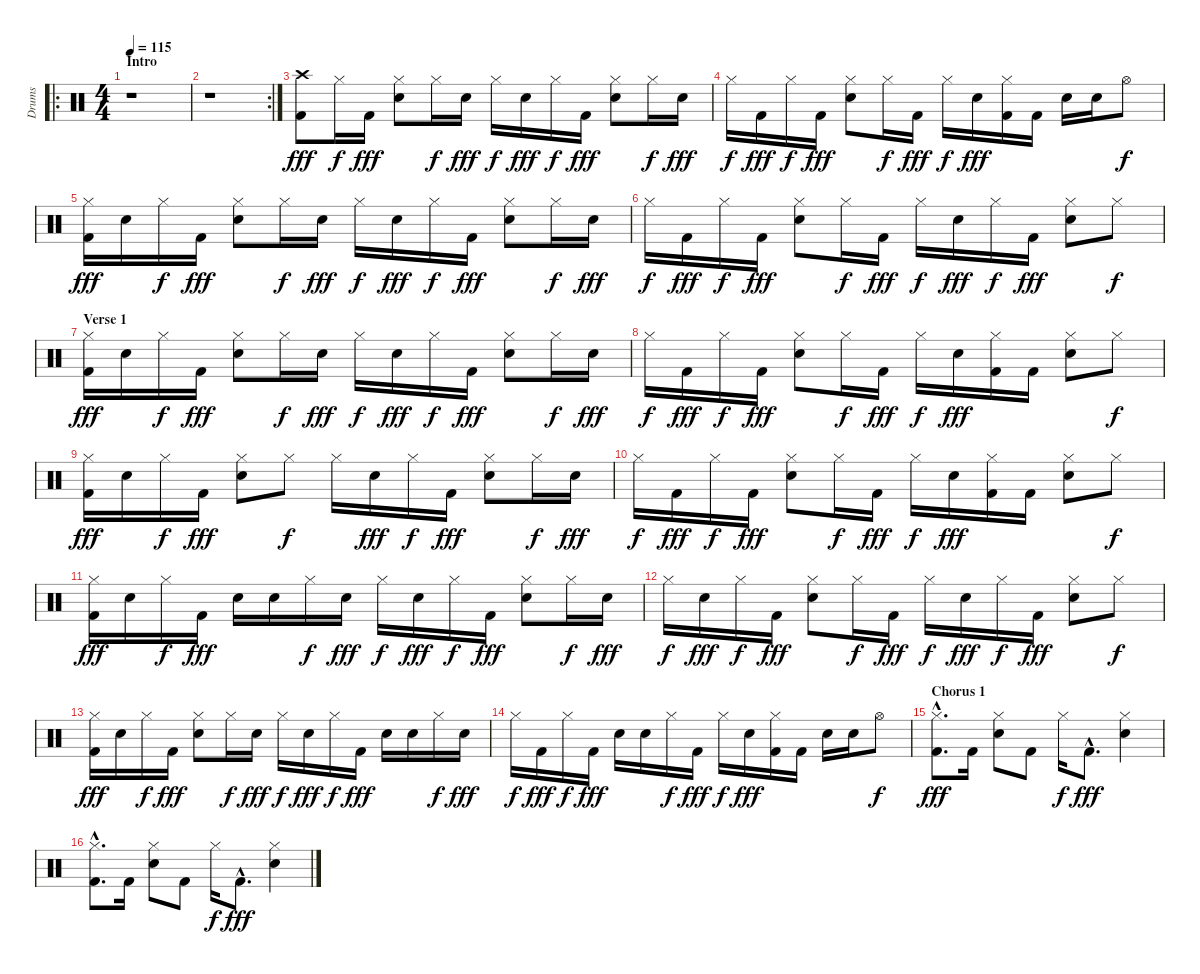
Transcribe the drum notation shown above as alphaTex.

\track ("Drums" "Drums") {instrument percussion}
\staff {score}
\articulation defaults
\ro
\ts (4 4)
\section ("" "Intro")
\tempo 115
\clef neutral
\ks c
r.1{dy fff} |
\rc 2
r.1 |
("Crash high (hit)" "Kick (hit) 2").8 "Hi-Hat (closed)".16{dy f} "Kick (hit) 2".16{dy fff} ("Hi-Hat (closed)" "Electric Snare (hit)").8 "Hi-Hat (closed)".16{dy f} "Electric Snare (hit)".16{dy fff} "Hi-Hat (closed)".16{dy f} "Electric Snare (hit)".16{dy fff} "Hi-Hat (closed)".16{dy f} "Kick (hit) 2".16{dy fff} ("Hi-Hat (closed)" "Electric Snare (hit)").8 "Hi-Hat (closed)".16{dy f} "Electric Snare (hit)".16{dy fff} |
"Hi-Hat (closed)".16{dy f} "Kick (hit) 2".16{dy fff} "Hi-Hat (closed)".16{dy f} "Kick (hit) 2".16{dy fff} ("Hi-Hat (closed)" "Electric Snare (hit)").8 "Hi-Hat (closed)".16{dy f} "Kick (hit) 2".16{dy fff} "Hi-Hat (closed)".16{dy f} "Electric Snare (hit)".16{dy fff} ("Hi-Hat (closed)" "Kick (hit) 2").16 "Kick (hit) 2".16 "Electric Snare (hit)".16 "Electric Snare (hit)".16 "Hi-Hat (open)".8{dy f} |
("Hi-Hat (closed)" "Kick (hit) 2").16{dy fff} "Electric Snare (hit)".16 "Hi-Hat (closed)".16{dy f} "Kick (hit) 2".16{dy fff} ("Hi-Hat (closed)" "Electric Snare (hit)").8 "Hi-Hat (closed)".16{dy f} "Electric Snare (hit)".16{dy fff} "Hi-Hat (closed)".16{dy f} "Electric Snare (hit)".16{dy fff} "Hi-Hat (closed)".16{dy f} "Kick (hit) 2".16{dy fff} ("Hi-Hat (closed)" "Electric Snare (hit)").8 "Hi-Hat (closed)".16{dy f} "Electric Snare (hit)".16{dy fff} |
"Hi-Hat (closed)".16{dy f} "Kick (hit) 2".16{dy fff} "Hi-Hat (closed)".16{dy f} "Kick (hit) 2".16{dy fff} ("Hi-Hat (closed)" "Electric Snare (hit)").8 "Hi-Hat (closed)".16{dy f} "Kick (hit) 2".16{dy fff} "Hi-Hat (closed)".16{dy f} "Electric Snare (hit)".16{dy fff} "Hi-Hat (closed)".16{dy f} "Kick (hit) 2".16{dy fff} ("Hi-Hat (closed)" "Electric Snare (hit)").8 "Hi-Hat (closed)".8{dy f} |
\section ("" "Verse 1")
("Hi-Hat (closed)" "Kick (hit) 2").16{dy fff} "Electric Snare (hit)".16 "Hi-Hat (closed)".16{dy f} "Kick (hit) 2".16{dy fff} ("Hi-Hat (closed)" "Electric Snare (hit)").8 "Hi-Hat (closed)".16{dy f} "Electric Snare (hit)".16{dy fff} "Hi-Hat (closed)".16{dy f} "Electric Snare (hit)".16{dy fff} "Hi-Hat (closed)".16{dy f} "Kick (hit) 2".16{dy fff} ("Hi-Hat (closed)" "Electric Snare (hit)").8 "Hi-Hat (closed)".16{dy f} "Electric Snare (hit)".16{dy fff} |
"Hi-Hat (closed)".16{dy f} "Kick (hit) 2".16{dy fff} "Hi-Hat (closed)".16{dy f} "Kick (hit) 2".16{dy fff} ("Hi-Hat (closed)" "Electric Snare (hit)").8 "Hi-Hat (closed)".16{dy f} "Kick (hit) 2".16{dy fff} "Hi-Hat (closed)".16{dy f} "Electric Snare (hit)".16{dy fff} ("Hi-Hat (closed)" "Kick (hit) 2").16 "Kick (hit) 2".16 ("Hi-Hat (closed)" "Electric Snare (hit)").8 "Hi-Hat (closed)".8{dy f} |
("Hi-Hat (closed)" "Kick (hit) 2").16{dy fff} "Electric Snare (hit)".16 "Hi-Hat (closed)".16{dy f} "Kick (hit) 2".16{dy fff} ("Hi-Hat (closed)" "Electric Snare (hit)").8 "Hi-Hat (closed)".8{dy f} "Hi-Hat (closed)".16 "Electric Snare (hit)".16{dy fff} "Hi-Hat (closed)".16{dy f} "Kick (hit) 2".16{dy fff} ("Hi-Hat (closed)" "Electric Snare (hit)").8 "Hi-Hat (closed)".16{dy f} "Electric Snare (hit)".16{dy fff} |
"Hi-Hat (closed)".16{dy f} "Kick (hit) 2".16{dy fff} "Hi-Hat (closed)".16{dy f} "Kick (hit) 2".16{dy fff} ("Hi-Hat (closed)" "Electric Snare (hit)").8 "Hi-Hat (closed)".16{dy f} "Kick (hit) 2".16{dy fff} "Hi-Hat (closed)".16{dy f} "Electric Snare (hit)".16{dy fff} ("Hi-Hat (closed)" "Kick (hit) 2").16 "Kick (hit) 2".16 ("Hi-Hat (closed)" "Electric Snare (hit)").8 "Hi-Hat (closed)".8{dy f} |
("Hi-Hat (closed)" "Kick (hit) 2").16{dy fff} "Electric Snare (hit)".16 "Hi-Hat (closed)".16{dy f} "Kick (hit) 2".16{dy fff} "Electric Snare (hit)".16 "Electric Snare (hit)".16 "Hi-Hat (closed)".16{dy f} "Electric Snare (hit)".16{dy fff} "Hi-Hat (closed)".16{dy f} "Electric Snare (hit)".16{dy fff} "Hi-Hat (closed)".16{dy f} "Kick (hit) 2".16{dy fff} ("Hi-Hat (closed)" "Electric Snare (hit)").8 "Hi-Hat (closed)".16{dy f} "Electric Snare (hit)".16{dy fff} |
"Hi-Hat (closed)".16{dy f} "Electric Snare (hit)".16{dy fff} "Hi-Hat (closed)".16{dy f} "Kick (hit) 2".16{dy fff} ("Hi-Hat (closed)" "Electric Snare (hit)").8 "Hi-Hat (closed)".16{dy f} "Kick (hit) 2".16{dy fff} "Hi-Hat (closed)".16{dy f} "Electric Snare (hit)".16{dy fff} "Hi-Hat (closed)".16{dy f} "Kick (hit) 2".16{dy fff} ("Hi-Hat (closed)" "Electric Snare (hit)").8 "Hi-Hat (closed)".8{dy f} |
("Hi-Hat (closed)" "Kick (hit) 2").16{dy fff} "Electric Snare (hit)".16 "Hi-Hat (closed)".16{dy f} "Kick (hit) 2".16{dy fff} ("Hi-Hat (closed)" "Electric Snare (hit)").8 "Hi-Hat (closed)".16{dy f} "Electric Snare (hit)".16{dy fff} "Hi-Hat (closed)".16{dy f} "Electric Snare (hit)".16{dy fff} "Hi-Hat (closed)".16{dy f} "Kick (hit) 2".16{dy fff} "Electric Snare (hit)".16 "Electric Snare (hit)".16 "Hi-Hat (closed)".16{dy f} "Electric Snare (hit)".16{dy fff} |
"Hi-Hat (closed)".16{dy f} "Kick (hit) 2".16{dy fff} "Hi-Hat (closed)".16{dy f} "Kick (hit) 2".16{dy fff} "Electric Snare (hit)".16 "Electric Snare (hit)".16 "Hi-Hat (closed)".16{dy f} "Kick (hit) 2".16{dy fff} "Hi-Hat (closed)".16{dy f} "Electric Snare (hit)".16{dy fff} ("Hi-Hat (closed)" "Kick (hit) 2").16 "Kick (hit) 2".16 "Electric Snare (hit)".16 "Electric Snare (hit)".16 "Hi-Hat (open)".8{dy f} |
\section ("" "Chorus 1")
("Hi-Hat (closed)"{hac} "Kick (hit) 2"{hac}).8{d dy fff} "Kick (hit) 2".16 ("Hi-Hat (closed)" "Electric Snare (hit)").8 "Kick (hit) 2".8 "Hi-Hat (closed)".16{dy f} "Kick (hit) 2"{hac}.8{d dy fff} ("Hi-Hat (closed)" "Electric Snare (hit)").4 |
("Hi-Hat (closed)"{hac} "Kick (hit) 2"{hac}).8{d} "Kick (hit) 2".16 ("Hi-Hat (closed)" "Electric Snare (hit)").8 "Kick (hit) 2".8 "Hi-Hat (closed)".16{dy f} "Kick (hit) 2"{hac}.8{d dy fff} ("Hi-Hat (closed)" "Electric Snare (hit)").4
